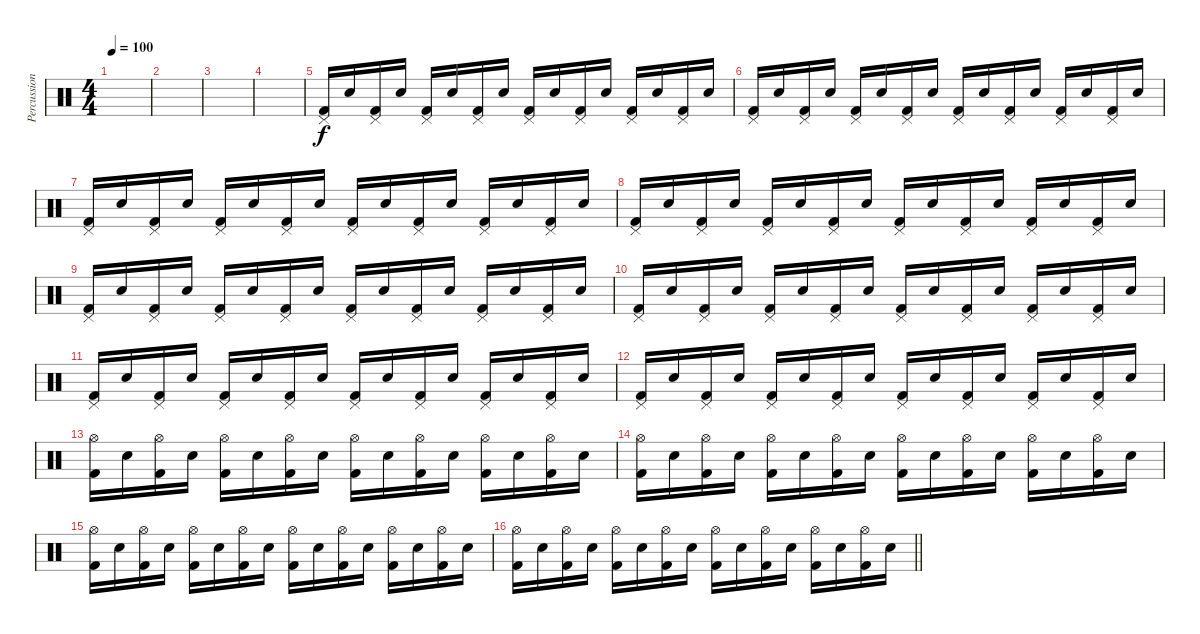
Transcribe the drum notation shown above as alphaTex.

\track ("Percussions" "Percussion") {instrument percussion}
\staff {score}
\articulation defaults
\ts (4 4)
\tempo 100
\clef neutral
\ks c
|
|
|
|
("Pedal Hi-Hat (hit)" "Kick (hit) 2").16 "Electric Snare (hit)".16 ("Pedal Hi-Hat (hit)" "Kick (hit) 2").16 "Electric Snare (hit)".16 ("Pedal Hi-Hat (hit)" "Kick (hit) 2").16 "Electric Snare (hit)".16 ("Pedal Hi-Hat (hit)" "Kick (hit) 2").16 "Electric Snare (hit)".16 ("Pedal Hi-Hat (hit)" "Kick (hit) 2").16 "Electric Snare (hit)".16 ("Pedal Hi-Hat (hit)" "Kick (hit) 2").16 "Electric Snare (hit)".16 ("Pedal Hi-Hat (hit)" "Kick (hit) 2").16 "Electric Snare (hit)".16 ("Pedal Hi-Hat (hit)" "Kick (hit) 2").16 "Electric Snare (hit)".16 |
("Pedal Hi-Hat (hit)" "Kick (hit) 2").16 "Electric Snare (hit)".16 ("Pedal Hi-Hat (hit)" "Kick (hit) 2").16 "Electric Snare (hit)".16 ("Pedal Hi-Hat (hit)" "Kick (hit) 2").16 "Electric Snare (hit)".16 ("Pedal Hi-Hat (hit)" "Kick (hit) 2").16 "Electric Snare (hit)".16 ("Pedal Hi-Hat (hit)" "Kick (hit) 2").16 "Electric Snare (hit)".16 ("Pedal Hi-Hat (hit)" "Kick (hit) 2").16 "Electric Snare (hit)".16 ("Pedal Hi-Hat (hit)" "Kick (hit) 2").16 "Electric Snare (hit)".16 ("Pedal Hi-Hat (hit)" "Kick (hit) 2").16 "Electric Snare (hit)".16 |
("Pedal Hi-Hat (hit)" "Kick (hit) 2").16 "Electric Snare (hit)".16 ("Pedal Hi-Hat (hit)" "Kick (hit) 2").16 "Electric Snare (hit)".16 ("Pedal Hi-Hat (hit)" "Kick (hit) 2").16 "Electric Snare (hit)".16 ("Pedal Hi-Hat (hit)" "Kick (hit) 2").16 "Electric Snare (hit)".16 ("Pedal Hi-Hat (hit)" "Kick (hit) 2").16 "Electric Snare (hit)".16 ("Pedal Hi-Hat (hit)" "Kick (hit) 2").16 "Electric Snare (hit)".16 ("Pedal Hi-Hat (hit)" "Kick (hit) 2").16 "Electric Snare (hit)".16 ("Pedal Hi-Hat (hit)" "Kick (hit) 2").16 "Electric Snare (hit)".16 |
("Pedal Hi-Hat (hit)" "Kick (hit) 2").16 "Electric Snare (hit)".16 ("Pedal Hi-Hat (hit)" "Kick (hit) 2").16 "Electric Snare (hit)".16 ("Pedal Hi-Hat (hit)" "Kick (hit) 2").16 "Electric Snare (hit)".16 ("Pedal Hi-Hat (hit)" "Kick (hit) 2").16 "Electric Snare (hit)".16 ("Pedal Hi-Hat (hit)" "Kick (hit) 2").16 "Electric Snare (hit)".16 ("Pedal Hi-Hat (hit)" "Kick (hit) 2").16 "Electric Snare (hit)".16 ("Pedal Hi-Hat (hit)" "Kick (hit) 2").16 "Electric Snare (hit)".16 ("Pedal Hi-Hat (hit)" "Kick (hit) 2").16 "Electric Snare (hit)".16 |
("Pedal Hi-Hat (hit)" "Kick (hit) 2").16 "Electric Snare (hit)".16 ("Pedal Hi-Hat (hit)" "Kick (hit) 2").16 "Electric Snare (hit)".16 ("Pedal Hi-Hat (hit)" "Kick (hit) 2").16 "Electric Snare (hit)".16 ("Pedal Hi-Hat (hit)" "Kick (hit) 2").16 "Electric Snare (hit)".16 ("Pedal Hi-Hat (hit)" "Kick (hit) 2").16 "Electric Snare (hit)".16 ("Pedal Hi-Hat (hit)" "Kick (hit) 2").16 "Electric Snare (hit)".16 ("Pedal Hi-Hat (hit)" "Kick (hit) 2").16 "Electric Snare (hit)".16 ("Pedal Hi-Hat (hit)" "Kick (hit) 2").16 "Electric Snare (hit)".16 |
("Pedal Hi-Hat (hit)" "Kick (hit) 2").16 "Electric Snare (hit)".16 ("Pedal Hi-Hat (hit)" "Kick (hit) 2").16 "Electric Snare (hit)".16 ("Pedal Hi-Hat (hit)" "Kick (hit) 2").16 "Electric Snare (hit)".16 ("Pedal Hi-Hat (hit)" "Kick (hit) 2").16 "Electric Snare (hit)".16 ("Pedal Hi-Hat (hit)" "Kick (hit) 2").16 "Electric Snare (hit)".16 ("Pedal Hi-Hat (hit)" "Kick (hit) 2").16 "Electric Snare (hit)".16 ("Pedal Hi-Hat (hit)" "Kick (hit) 2").16 "Electric Snare (hit)".16 ("Pedal Hi-Hat (hit)" "Kick (hit) 2").16 "Electric Snare (hit)".16 |
("Pedal Hi-Hat (hit)" "Kick (hit) 2").16 "Electric Snare (hit)".16 ("Pedal Hi-Hat (hit)" "Kick (hit) 2").16 "Electric Snare (hit)".16 ("Pedal Hi-Hat (hit)" "Kick (hit) 2").16 "Electric Snare (hit)".16 ("Pedal Hi-Hat (hit)" "Kick (hit) 2").16 "Electric Snare (hit)".16 ("Pedal Hi-Hat (hit)" "Kick (hit) 2").16 "Electric Snare (hit)".16 ("Pedal Hi-Hat (hit)" "Kick (hit) 2").16 "Electric Snare (hit)".16 ("Pedal Hi-Hat (hit)" "Kick (hit) 2").16 "Electric Snare (hit)".16 ("Pedal Hi-Hat (hit)" "Kick (hit) 2").16 "Electric Snare (hit)".16 |
("Pedal Hi-Hat (hit)" "Kick (hit) 2").16 "Electric Snare (hit)".16 ("Pedal Hi-Hat (hit)" "Kick (hit) 2").16 "Electric Snare (hit)".16 ("Pedal Hi-Hat (hit)" "Kick (hit) 2").16 "Electric Snare (hit)".16 ("Pedal Hi-Hat (hit)" "Kick (hit) 2").16 "Electric Snare (hit)".16 ("Pedal Hi-Hat (hit)" "Kick (hit) 2").16 "Electric Snare (hit)".16 ("Pedal Hi-Hat (hit)" "Kick (hit) 2").16 "Electric Snare (hit)".16 ("Pedal Hi-Hat (hit)" "Kick (hit) 2").16 "Electric Snare (hit)".16 ("Pedal Hi-Hat (hit)" "Kick (hit) 2").16 "Electric Snare (hit)".16 |
("Hi-Hat (open)" "Kick (hit) 2").16 "Electric Snare (hit)".16 ("Hi-Hat (open)" "Kick (hit) 2").16 "Electric Snare (hit)".16 ("Hi-Hat (open)" "Kick (hit) 2").16 "Electric Snare (hit)".16 ("Hi-Hat (open)" "Kick (hit) 2").16 "Electric Snare (hit)".16 ("Hi-Hat (open)" "Kick (hit) 2").16 "Electric Snare (hit)".16 ("Hi-Hat (open)" "Kick (hit) 2").16 "Electric Snare (hit)".16 ("Hi-Hat (open)" "Kick (hit) 2").16 "Electric Snare (hit)".16 ("Hi-Hat (open)" "Kick (hit) 2").16 "Electric Snare (hit)".16 |
("Hi-Hat (open)" "Kick (hit) 2").16 "Electric Snare (hit)".16 ("Hi-Hat (open)" "Kick (hit) 2").16 "Electric Snare (hit)".16 ("Hi-Hat (open)" "Kick (hit) 2").16 "Electric Snare (hit)".16 ("Hi-Hat (open)" "Kick (hit) 2").16 "Electric Snare (hit)".16 ("Hi-Hat (open)" "Kick (hit) 2").16 "Electric Snare (hit)".16 ("Hi-Hat (open)" "Kick (hit) 2").16 "Electric Snare (hit)".16 ("Hi-Hat (open)" "Kick (hit) 2").16 "Electric Snare (hit)".16 ("Hi-Hat (open)" "Kick (hit) 2").16 "Electric Snare (hit)".16 |
("Hi-Hat (open)" "Kick (hit) 2").16 "Electric Snare (hit)".16 ("Hi-Hat (open)" "Kick (hit) 2").16 "Electric Snare (hit)".16 ("Hi-Hat (open)" "Kick (hit) 2").16 "Electric Snare (hit)".16 ("Hi-Hat (open)" "Kick (hit) 2").16 "Electric Snare (hit)".16 ("Hi-Hat (open)" "Kick (hit) 2").16 "Electric Snare (hit)".16 ("Hi-Hat (open)" "Kick (hit) 2").16 "Electric Snare (hit)".16 ("Hi-Hat (open)" "Kick (hit) 2").16 "Electric Snare (hit)".16 ("Hi-Hat (open)" "Kick (hit) 2").16 "Electric Snare (hit)".16 |
\barLineRight lightlight
("Hi-Hat (open)" "Kick (hit) 2").16 "Electric Snare (hit)".16 ("Hi-Hat (open)" "Kick (hit) 2").16 "Electric Snare (hit)".16 ("Hi-Hat (open)" "Kick (hit) 2").16 "Electric Snare (hit)".16 ("Hi-Hat (open)" "Kick (hit) 2").16 "Electric Snare (hit)".16 ("Hi-Hat (open)" "Kick (hit) 2").16 "Electric Snare (hit)".16 ("Hi-Hat (open)" "Kick (hit) 2").16 "Electric Snare (hit)".16 ("Hi-Hat (open)" "Kick (hit) 2").16 "Electric Snare (hit)".16 ("Hi-Hat (open)" "Kick (hit) 2").16 "Electric Snare (hit)".16
